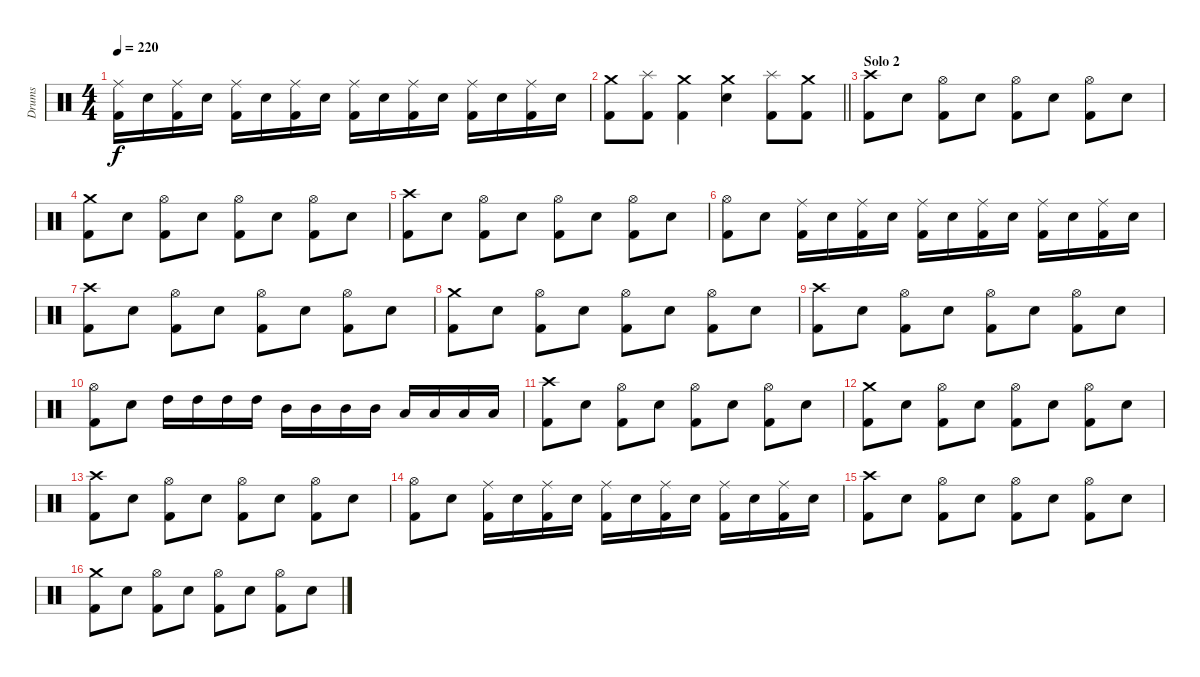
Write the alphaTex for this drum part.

\track ("Drums" "Drums") {instrument percussion}
\staff {score}
\articulation defaults
\ts (4 4)
\tempo 220
\clef neutral
\ks c
("Ride (middle)" "Kick (hit) 2").16{dy f} "Electric Snare (hit)".16 ("Ride (middle)" "Kick (hit) 2").16 "Electric Snare (hit)".16 ("Ride (middle)" "Kick (hit) 2").16 "Electric Snare (hit)".16 ("Ride (middle)" "Kick (hit) 2").16 "Electric Snare (hit)".16 ("Ride (middle)" "Kick (hit) 2").16 "Electric Snare (hit)".16 ("Ride (middle)" "Kick (hit) 2").16 "Electric Snare (hit)".16 ("Ride (middle)" "Kick (hit) 2").16 "Electric Snare (hit)".16 ("Ride (middle)" "Kick (hit) 2").16 "Electric Snare (hit)".16 |
\barLineRight lightlight
("Crash medium (hit)" "Kick (hit) 2").8 ("Splash (hit)" "Kick (hit) 2").8 ("Crash medium (hit)" "Kick (hit) 2").4 ("Crash medium (hit)" "Electric Snare (hit)").4 ("Splash (hit)" "Kick (hit) 2").8 ("Crash medium (hit)" "Kick (hit) 2").8 |
\section ("" "Solo 2")
("Crash high (hit)" "Kick (hit) 2").8 "Electric Snare (hit)".8 ("Hi-Hat (open)" "Kick (hit) 2").8 "Electric Snare (hit)".8 ("Hi-Hat (open)" "Kick (hit) 2").8 "Electric Snare (hit)".8 ("Hi-Hat (open)" "Kick (hit) 2").8 "Electric Snare (hit)".8 |
("Crash medium (hit)" "Kick (hit) 2").8 "Electric Snare (hit)".8 ("Hi-Hat (open)" "Kick (hit) 2").8 "Electric Snare (hit)".8 ("Hi-Hat (open)" "Kick (hit) 2").8 "Electric Snare (hit)".8 ("Hi-Hat (open)" "Kick (hit) 2").8 "Electric Snare (hit)".8 |
("Crash high (hit)" "Kick (hit) 2").8 "Electric Snare (hit)".8 ("Hi-Hat (open)" "Kick (hit) 2").8 "Electric Snare (hit)".8 ("Hi-Hat (open)" "Kick (hit) 2").8 "Electric Snare (hit)".8 ("Hi-Hat (open)" "Kick (hit) 2").8 "Electric Snare (hit)".8 |
("Hi-Hat (open)" "Kick (hit) 2").8 "Electric Snare (hit)".8 ("Ride (middle)" "Kick (hit) 2").16 "Electric Snare (hit)".16 ("Ride (middle)" "Kick (hit) 2").16 "Electric Snare (hit)".16 ("Ride (middle)" "Kick (hit) 2").16 "Electric Snare (hit)".16 ("Ride (middle)" "Kick (hit) 2").16 "Electric Snare (hit)".16 ("Ride (middle)" "Kick (hit) 2").16 "Electric Snare (hit)".16 ("Ride (middle)" "Kick (hit) 2").16 "Electric Snare (hit)".16 |
("Crash high (hit)" "Kick (hit) 2").8 "Electric Snare (hit)".8 ("Hi-Hat (open)" "Kick (hit) 2").8 "Electric Snare (hit)".8 ("Hi-Hat (open)" "Kick (hit) 2").8 "Electric Snare (hit)".8 ("Hi-Hat (open)" "Kick (hit) 2").8 "Electric Snare (hit)".8 |
("Crash medium (hit)" "Kick (hit) 2").8 "Electric Snare (hit)".8 ("Hi-Hat (open)" "Kick (hit) 2").8 "Electric Snare (hit)".8 ("Hi-Hat (open)" "Kick (hit) 2").8 "Electric Snare (hit)".8 ("Hi-Hat (open)" "Kick (hit) 2").8 "Electric Snare (hit)".8 |
("Crash high (hit)" "Kick (hit) 2").8 "Electric Snare (hit)".8 ("Hi-Hat (open)" "Kick (hit) 2").8 "Electric Snare (hit)".8 ("Hi-Hat (open)" "Kick (hit) 2").8 "Electric Snare (hit)".8 ("Hi-Hat (open)" "Kick (hit) 2").8 "Electric Snare (hit)".8 |
("Hi-Hat (open)" "Kick (hit) 2").8 "Electric Snare (hit)".8 "High Tom (hit)".16 "High Tom (hit)".16 "High Tom (hit)".16 "High Tom (hit)".16 "Mid Tom (hit)".16 "Mid Tom (hit)".16 "Mid Tom (hit)".16 "Mid Tom (hit)".16 "Low Tom (hit)".16 "Low Tom (hit)".16 "Low Tom (hit)".16 "Low Tom (hit)".16 |
("Crash high (hit)" "Kick (hit) 2").8 "Electric Snare (hit)".8 ("Hi-Hat (open)" "Kick (hit) 2").8 "Electric Snare (hit)".8 ("Hi-Hat (open)" "Kick (hit) 2").8 "Electric Snare (hit)".8 ("Hi-Hat (open)" "Kick (hit) 2").8 "Electric Snare (hit)".8 |
("Crash medium (hit)" "Kick (hit) 2").8 "Electric Snare (hit)".8 ("Hi-Hat (open)" "Kick (hit) 2").8 "Electric Snare (hit)".8 ("Hi-Hat (open)" "Kick (hit) 2").8 "Electric Snare (hit)".8 ("Hi-Hat (open)" "Kick (hit) 2").8 "Electric Snare (hit)".8 |
("Crash high (hit)" "Kick (hit) 2").8 "Electric Snare (hit)".8 ("Hi-Hat (open)" "Kick (hit) 2").8 "Electric Snare (hit)".8 ("Hi-Hat (open)" "Kick (hit) 2").8 "Electric Snare (hit)".8 ("Hi-Hat (open)" "Kick (hit) 2").8 "Electric Snare (hit)".8 |
("Hi-Hat (open)" "Kick (hit) 2").8 "Electric Snare (hit)".8 ("Ride (middle)" "Kick (hit) 2").16 "Electric Snare (hit)".16 ("Ride (middle)" "Kick (hit) 2").16 "Electric Snare (hit)".16 ("Ride (middle)" "Kick (hit) 2").16 "Electric Snare (hit)".16 ("Ride (middle)" "Kick (hit) 2").16 "Electric Snare (hit)".16 ("Ride (middle)" "Kick (hit) 2").16 "Electric Snare (hit)".16 ("Ride (middle)" "Kick (hit) 2").16 "Electric Snare (hit)".16 |
("Crash high (hit)" "Kick (hit) 2").8 "Electric Snare (hit)".8 ("Hi-Hat (open)" "Kick (hit) 2").8 "Electric Snare (hit)".8 ("Hi-Hat (open)" "Kick (hit) 2").8 "Electric Snare (hit)".8 ("Hi-Hat (open)" "Kick (hit) 2").8 "Electric Snare (hit)".8 |
("Crash medium (hit)" "Kick (hit) 2").8 "Electric Snare (hit)".8 ("Hi-Hat (open)" "Kick (hit) 2").8 "Electric Snare (hit)".8 ("Hi-Hat (open)" "Kick (hit) 2").8 "Electric Snare (hit)".8 ("Hi-Hat (open)" "Kick (hit) 2").8 "Electric Snare (hit)".8
